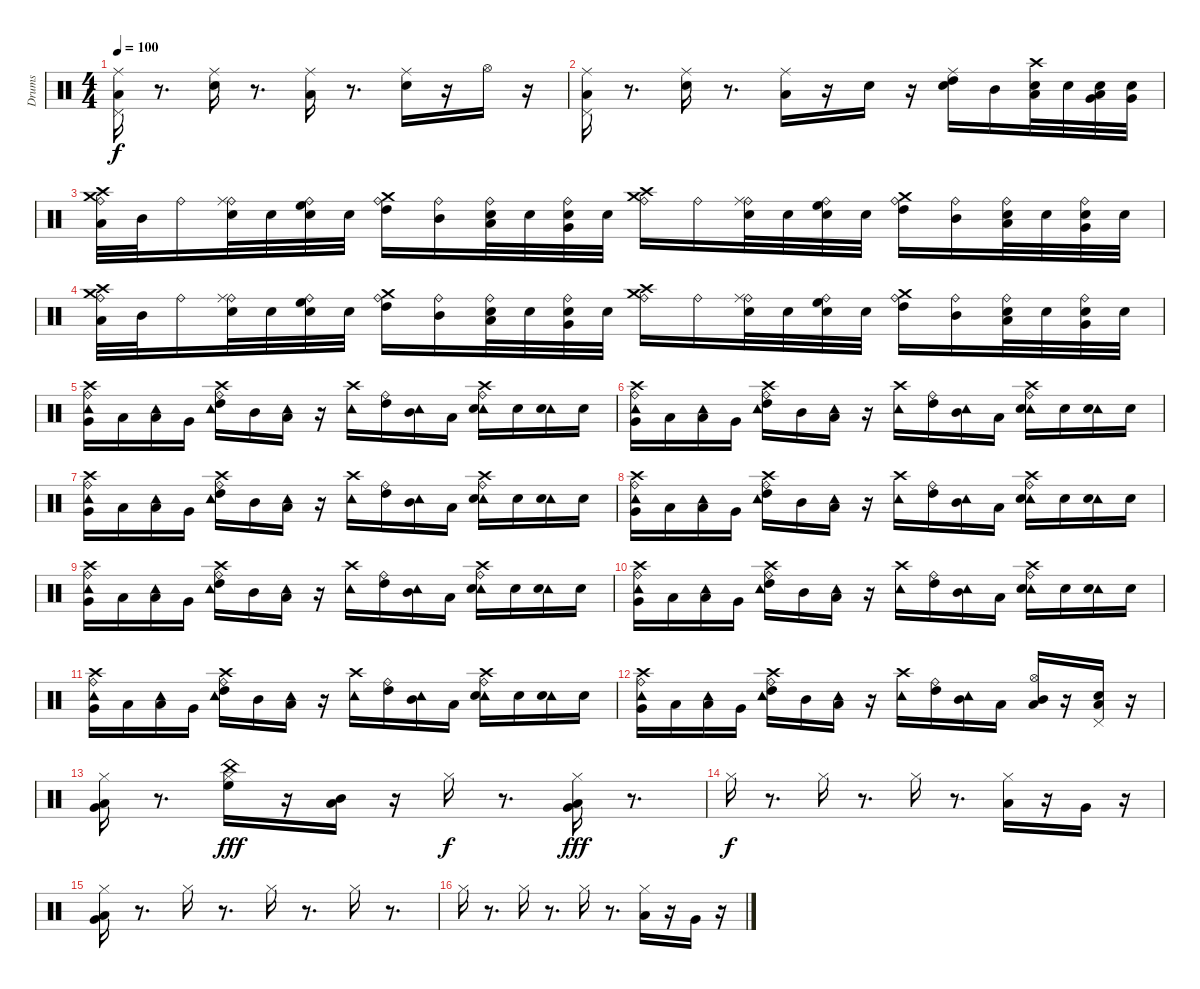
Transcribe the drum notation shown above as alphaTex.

\track ("Drums" "Drums") {instrument percussion}
\staff {score}
\articulation defaults
\ts (4 4)
\tempo 100
\clef neutral
\ks c
("Low Floor Tom (hit)" "Pedal Hi-Hat (hit)" "Ride (middle)").16{dy f} r.8{d} ("Electric Snare (hit)" "Ride (middle)").16 r.8{d} ("Low Floor Tom (hit)" "Ride (middle)").16 r.8{d} ("Ride (middle)" "Electric Snare (hit)").16 r.16 "Hi-Hat (open)".16 r.16 |
("Low Floor Tom (hit)" "Pedal Hi-Hat (hit)" "Ride (middle)").16 r.8{d} ("Electric Snare (hit)" "Ride (middle)").16 r.8{d} ("Low Floor Tom (hit)" "Ride (middle)").16 r.16 "Electric Snare (hit)".16 r.16 ("High Tom (hit)" "Ride (middle)" "Electric Snare (hit)").16 "Mid Tom (hit)".16 ("Crash high (hit)" "Electric Snare (hit)" "Low Tom (hit)").32 "Electric Snare (hit)".32 ("Electric Snare (hit)" "Very Low Tom (hit)" "Low Floor Tom (hit)").32 ("Electric Snare (hit)" "Very Low Tom (hit)").32 |
("Crash medium (hit)" "Ride (bell)" "Crash high (hit)" "Low Tom (hit)").32 "Mid Tom (hit)".32 "Ride (bell)".16 ("Ride (bell)" "Electric Snare (hit)" "Ride (middle)").32 "Electric Snare (hit)".32 ("Ride (bell)" "Electric Snare (hit)" "High Floor Tom (hit)").32 "Electric Snare (hit)".32 ("Crash medium (hit)" "Ride (bell)" "High Tom (hit)").16 ("Ride (bell)" "Mid Tom (hit)").16 ("Ride (bell)" "Low Tom (hit)" "Electric Snare (hit)").32 "Electric Snare (hit)".32 ("Ride (bell)" "Very Low Tom (hit)" "Electric Snare (hit)").32 "Electric Snare (hit)".32 ("Crash medium (hit)" "Ride (bell)" "Crash high (hit)").16 "Ride (bell)".16 ("Ride (bell)" "Ride (middle)" "Electric Snare (hit)").32 "Electric Snare (hit)".32 ("Ride (bell)" "High Floor Tom (hit)" "Electric Snare (hit)").32 "Electric Snare (hit)".32 ("Crash medium (hit)" "Ride (bell)" "High Tom (hit)").16 ("Ride (bell)" "Mid Tom (hit)").16 ("Ride (bell)" "Low Tom (hit)" "Electric Snare (hit)").32 "Electric Snare (hit)".32 ("Ride (bell)" "Very Low Tom (hit)" "Electric Snare (hit)").32 "Electric Snare (hit)".32 |
("Crash medium (hit)" "Ride (bell)" "Crash high (hit)" "Low Tom (hit)").32 "Mid Tom (hit)".32 "Ride (bell)".16 ("Ride (bell)" "Electric Snare (hit)" "Ride (middle)").32 "Electric Snare (hit)".32 ("Ride (bell)" "Electric Snare (hit)" "High Floor Tom (hit)").32 "Electric Snare (hit)".32 ("Crash medium (hit)" "Ride (bell)" "High Tom (hit)").16 ("Ride (bell)" "Mid Tom (hit)").16 ("Ride (bell)" "Low Tom (hit)" "Electric Snare (hit)").32 "Electric Snare (hit)".32 ("Ride (bell)" "Very Low Tom (hit)" "Electric Snare (hit)").32 "Electric Snare (hit)".32 ("Crash medium (hit)" "Ride (bell)" "Crash high (hit)").16 "Ride (bell)".16 ("Ride (bell)" "Ride (middle)" "Electric Snare (hit)").32 "Electric Snare (hit)".32 ("Ride (bell)" "High Floor Tom (hit)" "Electric Snare (hit)").32 "Electric Snare (hit)".32 ("Crash medium (hit)" "Ride (bell)" "High Tom (hit)").16 ("Ride (bell)" "Mid Tom (hit)").16 ("Ride (bell)" "Low Tom (hit)" "Electric Snare (hit)").32 "Electric Snare (hit)".32 ("Ride (bell)" "Very Low Tom (hit)" "Electric Snare (hit)").32 "Electric Snare (hit)".32 |
("Ride (bell)" "Tambourine (hit)" "Very Low Tom (hit)" "Crash high (hit)").16 "Low Tom (hit)".16 ("Tambourine (hit)" "Low Floor Tom (hit)").16 "Very Low Tom (hit)".16 ("Ride (bell)" "Tambourine (hit)" "High Tom (hit)" "Crash high (hit)").16 "Mid Tom (hit)".16 ("Tambourine (hit)" "Low Tom (hit)").16 r.16 ("Tambourine (hit)" "Crash high (hit)").16 ("Ride (bell)" "High Tom (hit)").16 ("Tambourine (hit)" "Mid Tom (hit)").16 "Low Tom (hit)".16 ("Ride (bell)" "Tambourine (hit)" "Electric Snare (hit)" "Crash high (hit)").16 "Electric Snare (hit)".16 ("Tambourine (hit)" "Electric Snare (hit)").16 "Electric Snare (hit)".16 |
("Ride (bell)" "Tambourine (hit)" "Very Low Tom (hit)" "Crash high (hit)").16 "Low Tom (hit)".16 ("Tambourine (hit)" "Low Floor Tom (hit)").16 "Very Low Tom (hit)".16 ("Ride (bell)" "Tambourine (hit)" "High Tom (hit)" "Crash high (hit)").16 "Mid Tom (hit)".16 ("Tambourine (hit)" "Low Tom (hit)").16 r.16 ("Tambourine (hit)" "Crash high (hit)").16 ("Ride (bell)" "High Tom (hit)").16 ("Tambourine (hit)" "Mid Tom (hit)").16 "Low Tom (hit)".16 ("Ride (bell)" "Tambourine (hit)" "Electric Snare (hit)" "Crash high (hit)").16 "Electric Snare (hit)".16 ("Tambourine (hit)" "Electric Snare (hit)").16 "Electric Snare (hit)".16 |
("Ride (bell)" "Tambourine (hit)" "Very Low Tom (hit)" "Crash high (hit)").16 "Low Tom (hit)".16 ("Tambourine (hit)" "Low Floor Tom (hit)").16 "Very Low Tom (hit)".16 ("Ride (bell)" "Tambourine (hit)" "High Tom (hit)" "Crash high (hit)").16 "Mid Tom (hit)".16 ("Tambourine (hit)" "Low Tom (hit)").16 r.16 ("Tambourine (hit)" "Crash high (hit)").16 ("Ride (bell)" "High Tom (hit)").16 ("Tambourine (hit)" "Mid Tom (hit)").16 "Low Tom (hit)".16 ("Ride (bell)" "Tambourine (hit)" "Electric Snare (hit)" "Crash high (hit)").16 "Electric Snare (hit)".16 ("Tambourine (hit)" "Electric Snare (hit)").16 "Electric Snare (hit)".16 |
("Ride (bell)" "Tambourine (hit)" "Very Low Tom (hit)" "Crash high (hit)").16 "Low Tom (hit)".16 ("Tambourine (hit)" "Low Floor Tom (hit)").16 "Very Low Tom (hit)".16 ("Ride (bell)" "Tambourine (hit)" "High Tom (hit)" "Crash high (hit)").16 "Mid Tom (hit)".16 ("Tambourine (hit)" "Low Tom (hit)").16 r.16 ("Tambourine (hit)" "Crash high (hit)").16 ("Ride (bell)" "High Tom (hit)").16 ("Tambourine (hit)" "Mid Tom (hit)").16 "Low Tom (hit)".16 ("Ride (bell)" "Tambourine (hit)" "Electric Snare (hit)" "Crash high (hit)").16 "Electric Snare (hit)".16 ("Tambourine (hit)" "Electric Snare (hit)").16 "Electric Snare (hit)".16 |
("Ride (bell)" "Tambourine (hit)" "Very Low Tom (hit)" "Crash high (hit)").16 "Low Tom (hit)".16 ("Tambourine (hit)" "Low Floor Tom (hit)").16 "Very Low Tom (hit)".16 ("Ride (bell)" "Tambourine (hit)" "High Tom (hit)" "Crash high (hit)").16 "Mid Tom (hit)".16 ("Tambourine (hit)" "Low Tom (hit)").16 r.16 ("Tambourine (hit)" "Crash high (hit)").16 ("Ride (bell)" "High Tom (hit)").16 ("Tambourine (hit)" "Mid Tom (hit)").16 "Low Tom (hit)".16 ("Ride (bell)" "Tambourine (hit)" "Electric Snare (hit)" "Crash high (hit)").16 "Electric Snare (hit)".16 ("Tambourine (hit)" "Electric Snare (hit)").16 "Electric Snare (hit)".16 |
("Ride (bell)" "Tambourine (hit)" "Very Low Tom (hit)" "Crash high (hit)").16 "Low Tom (hit)".16 ("Tambourine (hit)" "Low Floor Tom (hit)").16 "Very Low Tom (hit)".16 ("Ride (bell)" "Tambourine (hit)" "High Tom (hit)" "Crash high (hit)").16 "Mid Tom (hit)".16 ("Tambourine (hit)" "Low Tom (hit)").16 r.16 ("Tambourine (hit)" "Crash high (hit)").16 ("Ride (bell)" "High Tom (hit)").16 ("Tambourine (hit)" "Mid Tom (hit)").16 "Low Tom (hit)".16 ("Ride (bell)" "Tambourine (hit)" "Electric Snare (hit)" "Crash high (hit)").16 "Electric Snare (hit)".16 ("Tambourine (hit)" "Electric Snare (hit)").16 "Electric Snare (hit)".16 |
("Ride (bell)" "Tambourine (hit)" "Very Low Tom (hit)" "Crash high (hit)").16 "Low Tom (hit)".16 ("Tambourine (hit)" "Low Floor Tom (hit)").16 "Very Low Tom (hit)".16 ("Ride (bell)" "Tambourine (hit)" "High Tom (hit)" "Crash high (hit)").16 "Mid Tom (hit)".16 ("Tambourine (hit)" "Low Tom (hit)").16 r.16 ("Tambourine (hit)" "Crash high (hit)").16 ("Ride (bell)" "High Tom (hit)").16 ("Tambourine (hit)" "Mid Tom (hit)").16 "Low Tom (hit)".16 ("Ride (bell)" "Tambourine (hit)" "Electric Snare (hit)" "Crash high (hit)").16 "Electric Snare (hit)".16 ("Tambourine (hit)" "Electric Snare (hit)").16 "Electric Snare (hit)".16 |
("Ride (bell)" "Tambourine (hit)" "Very Low Tom (hit)" "Crash high (hit)").16 "Low Tom (hit)".16 ("Tambourine (hit)" "Low Floor Tom (hit)").16 "Very Low Tom (hit)".16 ("Ride (bell)" "Tambourine (hit)" "High Tom (hit)" "Crash high (hit)").16 "Mid Tom (hit)".16 ("Tambourine (hit)" "Low Tom (hit)").16 r.16 ("Tambourine (hit)" "Crash high (hit)").16 ("Ride (bell)" "High Tom (hit)").16 ("Tambourine (hit)" "Mid Tom (hit)").16 "Low Tom (hit)".16 ("Hi-Hat (open)" "Mid Tom (hit)" "Low Floor Tom (hit)").16 r.16 ("Pedal Hi-Hat (hit)" "Low Tom (hit)" "Electric Snare (hit)").16 r.16 |
("Low Floor Tom (hit)" "Very Low Tom (hit)" "Hi-Hat (closed)").16 r.8{d} ("High Floor Tom (hit)" "China (hit)" "Hi-Hat (closed)").16{dy fff} r.16 ("Mid Tom (hit)" "Low Tom (hit)").16 r.16 "Hi-Hat (closed)".16{dy f} r.8{d} ("Low Tom (hit)" "Very Low Tom (hit)" "Hi-Hat (closed)").16{dy fff} r.8{d} |
"Hi-Hat (closed)".16{dy f} r.8{d} "Hi-Hat (closed)".16 r.8{d} "Hi-Hat (closed)".16 r.8{d} ("Low Tom (hit)" "Hi-Hat (closed)").16 r.16 "Very Low Tom (hit)".16 r.16 |
("Low Floor Tom (hit)" "Very Low Tom (hit)" "Hi-Hat (closed)").16 r.8{d} "Hi-Hat (closed)".16 r.8{d} "Hi-Hat (closed)".16 r.8{d} "Hi-Hat (closed)".16 r.8{d} |
"Hi-Hat (closed)".16 r.8{d} "Hi-Hat (closed)".16 r.8{d} "Hi-Hat (closed)".16 r.8{d} ("Low Tom (hit)" "Hi-Hat (closed)").16 r.16 "Very Low Tom (hit)".16 r.16
